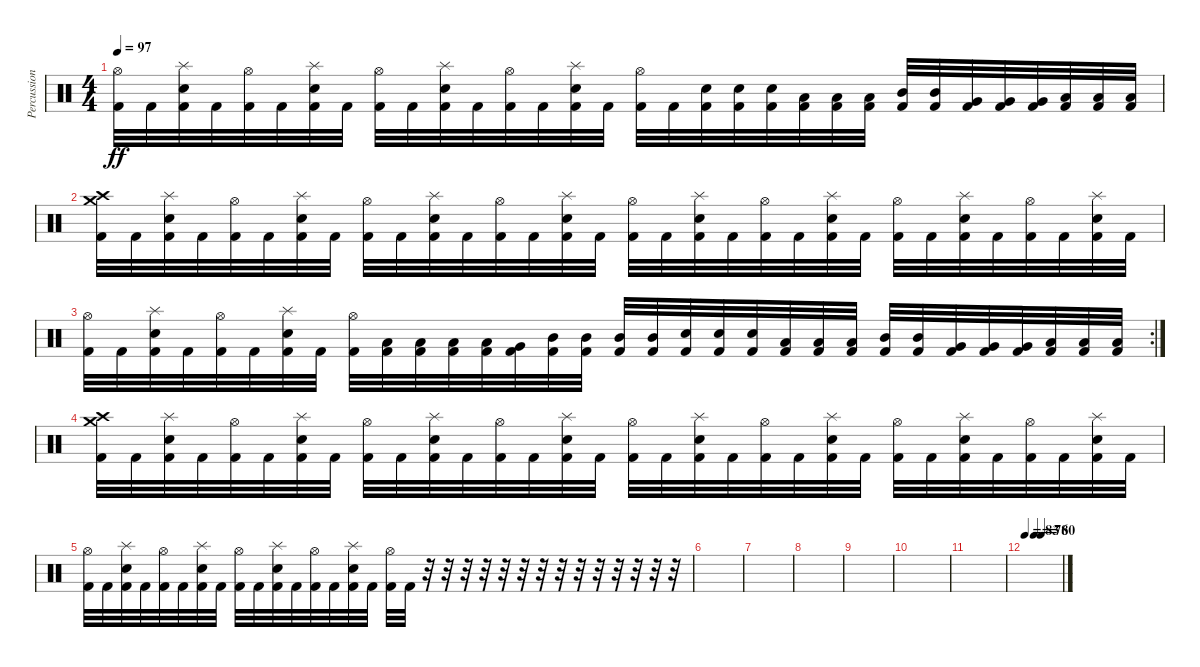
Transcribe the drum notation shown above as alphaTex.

\track ("Percussion" "Percussion") {instrument percussion}
\staff {score}
\articulation defaults
\ts (4 4)
\tempo 97
\clef neutral
\ks c
("Hi-Hat (open)" "Kick (hit) 2").32{dy ff} "Kick (hit) 2".32 ("Splash (hit)" "Snare (hit) 2" "Kick (hit) 2").32 "Kick (hit) 2".32 ("Hi-Hat (open)" "Kick (hit) 2").32 "Kick (hit) 2".32 ("Splash (hit)" "Snare (hit) 2" "Kick (hit) 2").32 "Kick (hit) 2".32 ("Hi-Hat (open)" "Kick (hit) 2").32 "Kick (hit) 2".32 ("Splash (hit)" "Snare (hit) 2" "Kick (hit) 2").32 "Kick (hit) 2".32 ("Hi-Hat (open)" "Kick (hit) 2").32 "Kick (hit) 2".32 ("Splash (hit)" "Snare (hit) 2" "Kick (hit) 2").32 "Kick (hit) 2".32 ("Hi-Hat (open)" "Kick (hit) 2").32 "Kick (hit) 2".32 ("Snare (hit) 2" "Kick (hit) 2").32 ("Snare (hit) 2" "Kick (hit) 2").32 ("Snare (hit) 2" "Kick (hit) 2").32 ("Low Tom (hit)" "Kick (hit) 2").32 ("Low Tom (hit)" "Kick (hit) 2").32 ("Low Tom (hit)" "Kick (hit) 2").32 ("Mid Tom (hit)" "Kick (hit) 2").32 ("Mid Tom (hit)" "Kick (hit) 2").32 ("Very Low Tom (hit)" "Kick (hit) 2").32 ("Very Low Tom (hit)" "Kick (hit) 2").32 ("Very Low Tom (hit)" "Kick (hit) 2").32 ("Low Floor Tom (hit)" "Kick (hit) 2").32 ("Low Floor Tom (hit)" "Kick (hit) 2").32 ("Low Floor Tom (hit)" "Kick (hit) 2").32 |
("Crash medium (hit)" "Crash high (hit)" "Kick (hit) 2").32 "Kick (hit) 2".32 ("Splash (hit)" "Snare (hit) 2" "Kick (hit) 2").32 "Kick (hit) 2".32 ("Hi-Hat (open)" "Kick (hit) 2").32 "Kick (hit) 2".32 ("Splash (hit)" "Snare (hit) 2" "Kick (hit) 2").32 "Kick (hit) 2".32 ("Hi-Hat (open)" "Kick (hit) 2").32 "Kick (hit) 2".32 ("Splash (hit)" "Snare (hit) 2" "Kick (hit) 2").32 "Kick (hit) 2".32 ("Hi-Hat (open)" "Kick (hit) 2").32 "Kick (hit) 2".32 ("Splash (hit)" "Snare (hit) 2" "Kick (hit) 2").32 "Kick (hit) 2".32 ("Hi-Hat (open)" "Kick (hit) 2").32 "Kick (hit) 2".32 ("Splash (hit)" "Snare (hit) 2" "Kick (hit) 2").32 "Kick (hit) 2".32 ("Hi-Hat (open)" "Kick (hit) 2").32 "Kick (hit) 2".32 ("Splash (hit)" "Snare (hit) 2" "Kick (hit) 2").32 "Kick (hit) 2".32 ("Hi-Hat (open)" "Kick (hit) 2").32 "Kick (hit) 2".32 ("Splash (hit)" "Snare (hit) 2" "Kick (hit) 2").32 "Kick (hit) 2".32 ("Hi-Hat (open)" "Kick (hit) 2").32 "Kick (hit) 2".32 ("Splash (hit)" "Snare (hit) 2" "Kick (hit) 2").32 "Kick (hit) 2".32 |
\rc 2
("Hi-Hat (open)" "Kick (hit) 2").32 "Kick (hit) 2".32 ("Splash (hit)" "Snare (hit) 2" "Kick (hit) 2").32 "Kick (hit) 2".32 ("Hi-Hat (open)" "Kick (hit) 2").32 "Kick (hit) 2".32 ("Splash (hit)" "Snare (hit) 2" "Kick (hit) 2").32 "Kick (hit) 2".32 ("Hi-Hat (open)" "Kick (hit) 2").32 ("Low Tom (hit)" "Kick (hit) 2").32 ("Low Floor Tom (hit)" "Kick (hit) 2").32 ("Low Floor Tom (hit)" "Kick (hit) 2").32 ("Low Floor Tom (hit)" "Kick (hit) 2").32 ("Very Low Tom (hit)" "Kick (hit) 2").32 ("Mid Tom (hit)" "Kick (hit) 2").32 ("Mid Tom (hit)" "Kick (hit) 2").32 ("Mid Tom (hit)" "Kick (hit) 2").32 ("Mid Tom (hit)" "Kick (hit) 2").32 ("Snare (hit) 2" "Kick (hit) 2").32 ("Snare (hit) 2" "Kick (hit) 2").32 ("Snare (hit) 2" "Kick (hit) 2").32 ("Low Tom (hit)" "Kick (hit) 2").32 ("Low Tom (hit)" "Kick (hit) 2").32 ("Low Tom (hit)" "Kick (hit) 2").32 ("Mid Tom (hit)" "Kick (hit) 2").32 ("Mid Tom (hit)" "Kick (hit) 2").32 ("Very Low Tom (hit)" "Kick (hit) 2").32 ("Very Low Tom (hit)" "Kick (hit) 2").32 ("Very Low Tom (hit)" "Kick (hit) 2").32 ("Low Floor Tom (hit)" "Kick (hit) 2").32 ("Low Floor Tom (hit)" "Kick (hit) 2").32 ("Low Floor Tom (hit)" "Kick (hit) 2").32 |
("Crash medium (hit)" "Crash high (hit)" "Kick (hit) 2").32{volume 13} "Kick (hit) 2".32 ("Splash (hit)" "Snare (hit) 2" "Kick (hit) 2").32 "Kick (hit) 2".32 ("Hi-Hat (open)" "Kick (hit) 2").32{volume 12} "Kick (hit) 2".32 ("Splash (hit)" "Snare (hit) 2" "Kick (hit) 2").32 "Kick (hit) 2".32 ("Hi-Hat (open)" "Kick (hit) 2").32{volume 11} "Kick (hit) 2".32 ("Splash (hit)" "Snare (hit) 2" "Kick (hit) 2").32 "Kick (hit) 2".32 ("Hi-Hat (open)" "Kick (hit) 2").32{volume 10} "Kick (hit) 2".32 ("Splash (hit)" "Snare (hit) 2" "Kick (hit) 2").32 "Kick (hit) 2".32 ("Hi-Hat (open)" "Kick (hit) 2").32{volume 9} "Kick (hit) 2".32 ("Splash (hit)" "Snare (hit) 2" "Kick (hit) 2").32 "Kick (hit) 2".32 ("Hi-Hat (open)" "Kick (hit) 2").32{volume 8} "Kick (hit) 2".32 ("Splash (hit)" "Snare (hit) 2" "Kick (hit) 2").32 "Kick (hit) 2".32 ("Hi-Hat (open)" "Kick (hit) 2").32{volume 7} "Kick (hit) 2".32 ("Splash (hit)" "Snare (hit) 2" "Kick (hit) 2").32 "Kick (hit) 2".32 ("Hi-Hat (open)" "Kick (hit) 2").32{volume 6} "Kick (hit) 2".32 ("Splash (hit)" "Snare (hit) 2" "Kick (hit) 2").32 "Kick (hit) 2".32 |
("Hi-Hat (open)" "Kick (hit) 2").32{volume 5} "Kick (hit) 2".32 ("Splash (hit)" "Snare (hit) 2" "Kick (hit) 2").32 "Kick (hit) 2".32 ("Hi-Hat (open)" "Kick (hit) 2").32{volume 4} "Kick (hit) 2".32 ("Splash (hit)" "Snare (hit) 2" "Kick (hit) 2").32 "Kick (hit) 2".32 ("Hi-Hat (open)" "Kick (hit) 2").32{volume 3} "Kick (hit) 2".32 ("Splash (hit)" "Snare (hit) 2" "Kick (hit) 2").32 "Kick (hit) 2".32 ("Hi-Hat (open)" "Kick (hit) 2").32{volume 2} "Kick (hit) 2".32 ("Splash (hit)" "Snare (hit) 2" "Kick (hit) 2").32 "Kick (hit) 2".32 ("Hi-Hat (open)" "Kick (hit) 2").32{volume 0} "Kick (hit) 2".32 r.32 r.32 r.32 r.32 r.32 r.32 r.32 r.32 r.32 r.32 r.32 r.32 r.32 r.32 |
|
|
|
|
|
|
\tempo 83
\tempo (76 0.25)
\tempo (80 0.4375)
